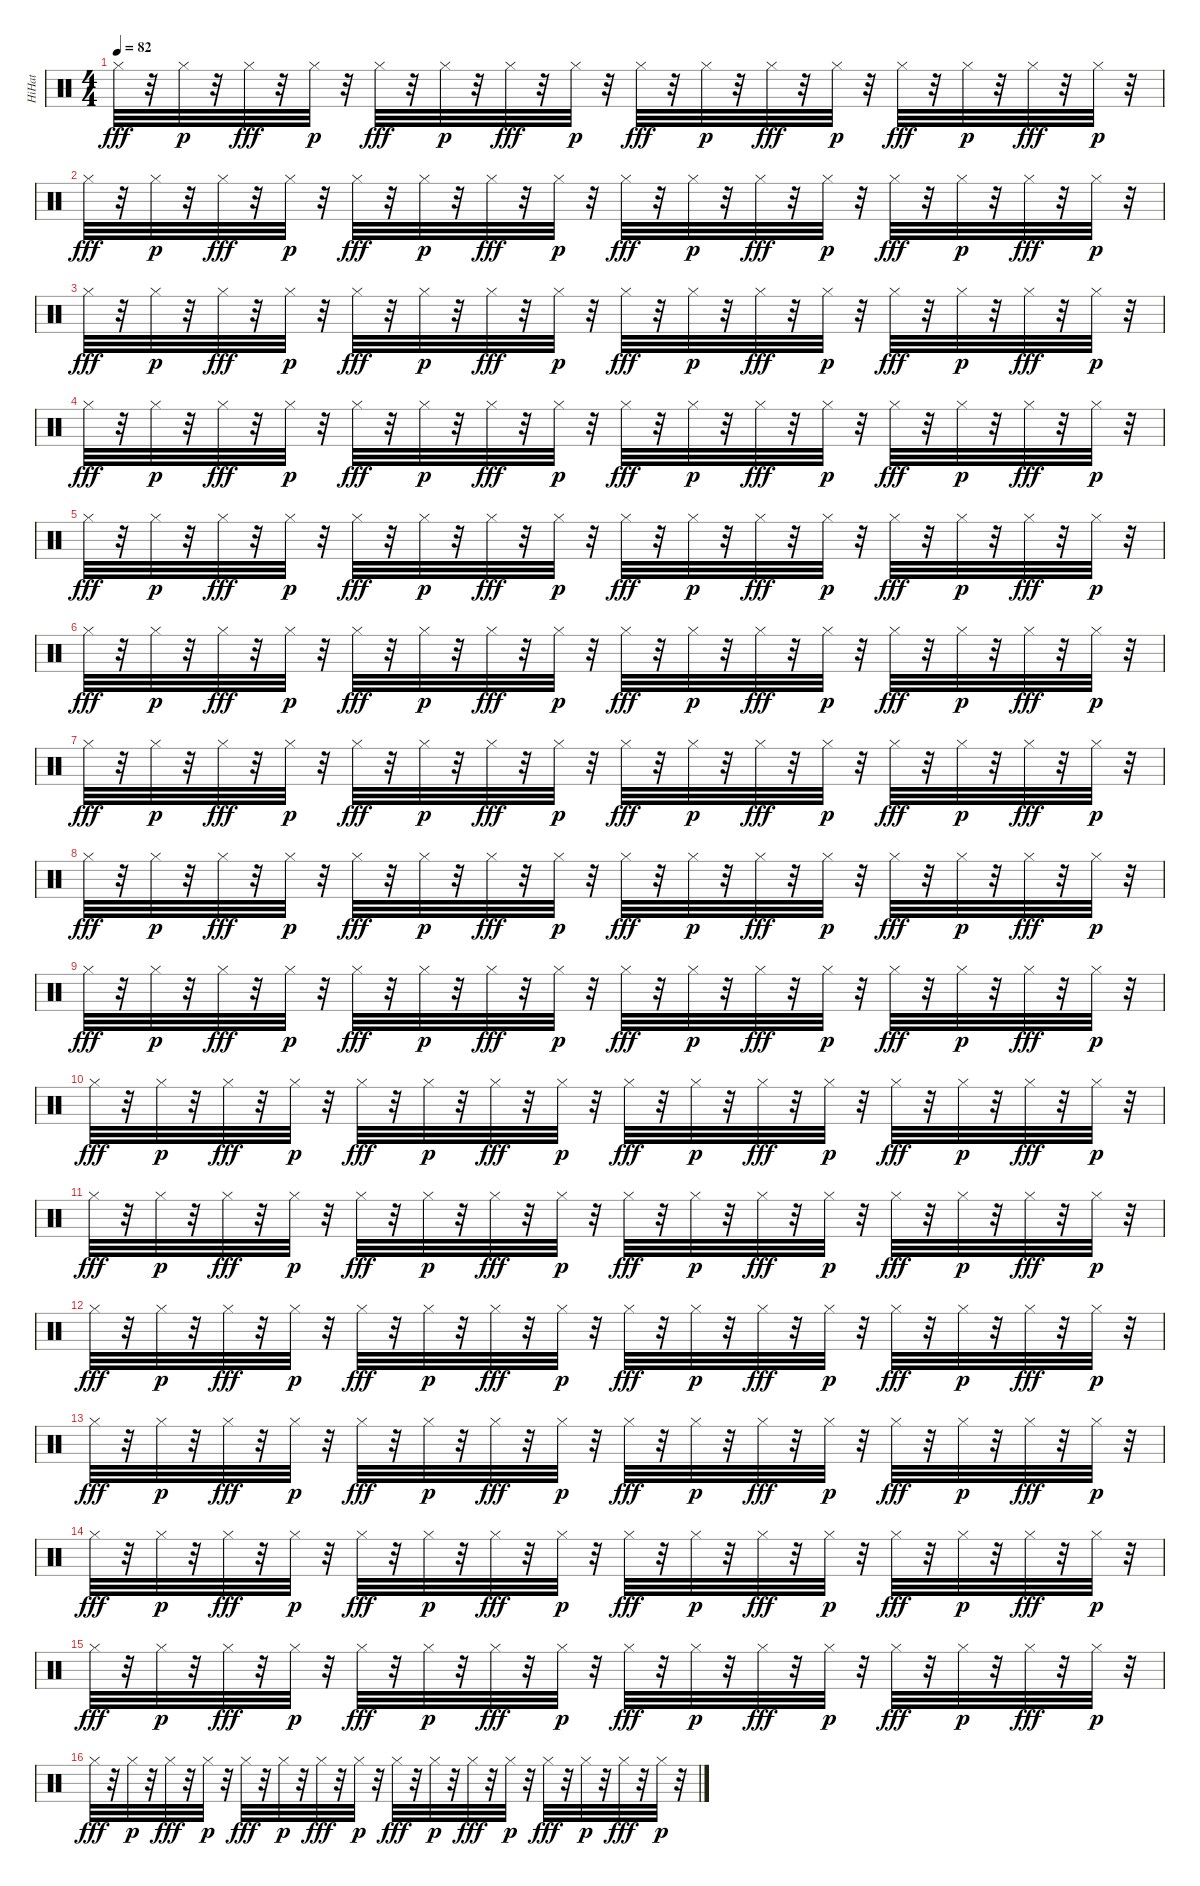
\track ("HiHat" "HiHat") {instrument percussion}
\staff {score}
\articulation defaults
\ts (4 4)
\tempo 82
\clef neutral
\ks c "Hi-Hat (closed)".32{dy fff}
r.32 "Hi-Hat (closed)".32{dy p} r.32 "Hi-Hat (closed)".32{dy fff} r.32 "Hi-Hat (closed)".32{dy p} r.32 "Hi-Hat (closed)".32{dy fff} r.32 "Hi-Hat (closed)".32{dy p} r.32 "Hi-Hat (closed)".32{dy fff} r.32 "Hi-Hat (closed)".32{dy p} r.32 "Hi-Hat (closed)".32{dy fff} r.32 "Hi-Hat (closed)".32{dy p} r.32 "Hi-Hat (closed)".32{dy fff} r.32 "Hi-Hat (closed)".32{dy p} r.32 "Hi-Hat (closed)".32{dy fff} r.32 "Hi-Hat (closed)".32{dy p} r.32 "Hi-Hat (closed)".32{dy fff} r.32 "Hi-Hat (closed)".32{dy p} r.32 |
"Hi-Hat (closed)".32{dy fff} r.32 "Hi-Hat (closed)".32{dy p} r.32 "Hi-Hat (closed)".32{dy fff} r.32 "Hi-Hat (closed)".32{dy p} r.32 "Hi-Hat (closed)".32{dy fff} r.32 "Hi-Hat (closed)".32{dy p} r.32 "Hi-Hat (closed)".32{dy fff} r.32 "Hi-Hat (closed)".32{dy p} r.32 "Hi-Hat (closed)".32{dy fff} r.32 "Hi-Hat (closed)".32{dy p} r.32 "Hi-Hat (closed)".32{dy fff} r.32 "Hi-Hat (closed)".32{dy p} r.32 "Hi-Hat (closed)".32{dy fff} r.32 "Hi-Hat (closed)".32{dy p} r.32 "Hi-Hat (closed)".32{dy fff} r.32 "Hi-Hat (closed)".32{dy p} r.32 |
"Hi-Hat (closed)".32{dy fff} r.32 "Hi-Hat (closed)".32{dy p} r.32 "Hi-Hat (closed)".32{dy fff} r.32 "Hi-Hat (closed)".32{dy p} r.32 "Hi-Hat (closed)".32{dy fff} r.32 "Hi-Hat (closed)".32{dy p} r.32 "Hi-Hat (closed)".32{dy fff} r.32 "Hi-Hat (closed)".32{dy p} r.32 "Hi-Hat (closed)".32{dy fff} r.32 "Hi-Hat (closed)".32{dy p} r.32 "Hi-Hat (closed)".32{dy fff} r.32 "Hi-Hat (closed)".32{dy p} r.32 "Hi-Hat (closed)".32{dy fff} r.32 "Hi-Hat (closed)".32{dy p} r.32 "Hi-Hat (closed)".32{dy fff} r.32 "Hi-Hat (closed)".32{dy p} r.32 |
"Hi-Hat (closed)".32{dy fff} r.32 "Hi-Hat (closed)".32{dy p} r.32 "Hi-Hat (closed)".32{dy fff} r.32 "Hi-Hat (closed)".32{dy p} r.32 "Hi-Hat (closed)".32{dy fff} r.32 "Hi-Hat (closed)".32{dy p} r.32 "Hi-Hat (closed)".32{dy fff} r.32 "Hi-Hat (closed)".32{dy p} r.32 "Hi-Hat (closed)".32{dy fff} r.32 "Hi-Hat (closed)".32{dy p} r.32 "Hi-Hat (closed)".32{dy fff} r.32 "Hi-Hat (closed)".32{dy p} r.32 "Hi-Hat (closed)".32{dy fff} r.32 "Hi-Hat (closed)".32{dy p} r.32 "Hi-Hat (closed)".32{dy fff} r.32 "Hi-Hat (closed)".32{dy p} r.32 |
"Hi-Hat (closed)".32{dy fff} r.32 "Hi-Hat (closed)".32{dy p} r.32 "Hi-Hat (closed)".32{dy fff} r.32 "Hi-Hat (closed)".32{dy p} r.32 "Hi-Hat (closed)".32{dy fff} r.32 "Hi-Hat (closed)".32{dy p} r.32 "Hi-Hat (closed)".32{dy fff} r.32 "Hi-Hat (closed)".32{dy p} r.32 "Hi-Hat (closed)".32{dy fff} r.32 "Hi-Hat (closed)".32{dy p} r.32 "Hi-Hat (closed)".32{dy fff} r.32 "Hi-Hat (closed)".32{dy p} r.32 "Hi-Hat (closed)".32{dy fff} r.32 "Hi-Hat (closed)".32{dy p} r.32 "Hi-Hat (closed)".32{dy fff} r.32 "Hi-Hat (closed)".32{dy p} r.32 |
"Hi-Hat (closed)".32{dy fff} r.32 "Hi-Hat (closed)".32{dy p} r.32 "Hi-Hat (closed)".32{dy fff} r.32 "Hi-Hat (closed)".32{dy p} r.32 "Hi-Hat (closed)".32{dy fff} r.32 "Hi-Hat (closed)".32{dy p} r.32 "Hi-Hat (closed)".32{dy fff} r.32 "Hi-Hat (closed)".32{dy p} r.32 "Hi-Hat (closed)".32{dy fff} r.32 "Hi-Hat (closed)".32{dy p} r.32 "Hi-Hat (closed)".32{dy fff} r.32 "Hi-Hat (closed)".32{dy p} r.32 "Hi-Hat (closed)".32{dy fff} r.32 "Hi-Hat (closed)".32{dy p} r.32 "Hi-Hat (closed)".32{dy fff} r.32 "Hi-Hat (closed)".32{dy p} r.32 |
"Hi-Hat (closed)".32{dy fff} r.32 "Hi-Hat (closed)".32{dy p} r.32 "Hi-Hat (closed)".32{dy fff} r.32 "Hi-Hat (closed)".32{dy p} r.32 "Hi-Hat (closed)".32{dy fff} r.32 "Hi-Hat (closed)".32{dy p} r.32 "Hi-Hat (closed)".32{dy fff} r.32 "Hi-Hat (closed)".32{dy p} r.32 "Hi-Hat (closed)".32{dy fff} r.32 "Hi-Hat (closed)".32{dy p} r.32 "Hi-Hat (closed)".32{dy fff} r.32 "Hi-Hat (closed)".32{dy p} r.32 "Hi-Hat (closed)".32{dy fff} r.32 "Hi-Hat (closed)".32{dy p} r.32 "Hi-Hat (closed)".32{dy fff} r.32 "Hi-Hat (closed)".32{dy p} r.32 |
"Hi-Hat (closed)".32{dy fff} r.32 "Hi-Hat (closed)".32{dy p} r.32 "Hi-Hat (closed)".32{dy fff} r.32 "Hi-Hat (closed)".32{dy p} r.32 "Hi-Hat (closed)".32{dy fff} r.32 "Hi-Hat (closed)".32{dy p} r.32 "Hi-Hat (closed)".32{dy fff} r.32 "Hi-Hat (closed)".32{dy p} r.32 "Hi-Hat (closed)".32{dy fff} r.32 "Hi-Hat (closed)".32{dy p} r.32 "Hi-Hat (closed)".32{dy fff} r.32 "Hi-Hat (closed)".32{dy p} r.32 "Hi-Hat (closed)".32{dy fff} r.32 "Hi-Hat (closed)".32{dy p} r.32 "Hi-Hat (closed)".32{dy fff} r.32 "Hi-Hat (closed)".32{dy p} r.32 |
"Hi-Hat (closed)".32{dy fff} r.32 "Hi-Hat (closed)".32{dy p} r.32 "Hi-Hat (closed)".32{dy fff} r.32 "Hi-Hat (closed)".32{dy p} r.32 "Hi-Hat (closed)".32{dy fff} r.32 "Hi-Hat (closed)".32{dy p} r.32 "Hi-Hat (closed)".32{dy fff} r.32 "Hi-Hat (closed)".32{dy p} r.32 "Hi-Hat (closed)".32{dy fff} r.32 "Hi-Hat (closed)".32{dy p} r.32 "Hi-Hat (closed)".32{dy fff} r.32 "Hi-Hat (closed)".32{dy p} r.32 "Hi-Hat (closed)".32{dy fff} r.32 "Hi-Hat (closed)".32{dy p} r.32 "Hi-Hat (closed)".32{dy fff} r.32 "Hi-Hat (closed)".32{dy p} r.32 |
"Hi-Hat (closed)".32{dy fff} r.32 "Hi-Hat (closed)".32{dy p} r.32 "Hi-Hat (closed)".32{dy fff} r.32 "Hi-Hat (closed)".32{dy p} r.32 "Hi-Hat (closed)".32{dy fff} r.32 "Hi-Hat (closed)".32{dy p} r.32 "Hi-Hat (closed)".32{dy fff} r.32 "Hi-Hat (closed)".32{dy p} r.32 "Hi-Hat (closed)".32{dy fff} r.32 "Hi-Hat (closed)".32{dy p} r.32 "Hi-Hat (closed)".32{dy fff} r.32 "Hi-Hat (closed)".32{dy p} r.32 "Hi-Hat (closed)".32{dy fff} r.32 "Hi-Hat (closed)".32{dy p} r.32 "Hi-Hat (closed)".32{dy fff} r.32 "Hi-Hat (closed)".32{dy p} r.32 |
"Hi-Hat (closed)".32{dy fff} r.32 "Hi-Hat (closed)".32{dy p} r.32 "Hi-Hat (closed)".32{dy fff} r.32 "Hi-Hat (closed)".32{dy p} r.32 "Hi-Hat (closed)".32{dy fff} r.32 "Hi-Hat (closed)".32{dy p} r.32 "Hi-Hat (closed)".32{dy fff} r.32 "Hi-Hat (closed)".32{dy p} r.32 "Hi-Hat (closed)".32{dy fff} r.32 "Hi-Hat (closed)".32{dy p} r.32 "Hi-Hat (closed)".32{dy fff} r.32 "Hi-Hat (closed)".32{dy p} r.32 "Hi-Hat (closed)".32{dy fff} r.32 "Hi-Hat (closed)".32{dy p} r.32 "Hi-Hat (closed)".32{dy fff} r.32 "Hi-Hat (closed)".32{dy p} r.32 |
"Hi-Hat (closed)".32{dy fff} r.32 "Hi-Hat (closed)".32{dy p} r.32 "Hi-Hat (closed)".32{dy fff} r.32 "Hi-Hat (closed)".32{dy p} r.32 "Hi-Hat (closed)".32{dy fff} r.32 "Hi-Hat (closed)".32{dy p} r.32 "Hi-Hat (closed)".32{dy fff} r.32 "Hi-Hat (closed)".32{dy p} r.32 "Hi-Hat (closed)".32{dy fff} r.32 "Hi-Hat (closed)".32{dy p} r.32 "Hi-Hat (closed)".32{dy fff} r.32 "Hi-Hat (closed)".32{dy p} r.32 "Hi-Hat (closed)".32{dy fff} r.32 "Hi-Hat (closed)".32{dy p} r.32 "Hi-Hat (closed)".32{dy fff} r.32 "Hi-Hat (closed)".32{dy p} r.32 |
"Hi-Hat (closed)".32{dy fff} r.32 "Hi-Hat (closed)".32{dy p} r.32 "Hi-Hat (closed)".32{dy fff} r.32 "Hi-Hat (closed)".32{dy p} r.32 "Hi-Hat (closed)".32{dy fff} r.32 "Hi-Hat (closed)".32{dy p} r.32 "Hi-Hat (closed)".32{dy fff} r.32 "Hi-Hat (closed)".32{dy p} r.32 "Hi-Hat (closed)".32{dy fff} r.32 "Hi-Hat (closed)".32{dy p} r.32 "Hi-Hat (closed)".32{dy fff} r.32 "Hi-Hat (closed)".32{dy p} r.32 "Hi-Hat (closed)".32{dy fff} r.32 "Hi-Hat (closed)".32{dy p} r.32 "Hi-Hat (closed)".32{dy fff} r.32 "Hi-Hat (closed)".32{dy p} r.32 |
"Hi-Hat (closed)".32{dy fff} r.32 "Hi-Hat (closed)".32{dy p} r.32 "Hi-Hat (closed)".32{dy fff} r.32 "Hi-Hat (closed)".32{dy p} r.32 "Hi-Hat (closed)".32{dy fff} r.32 "Hi-Hat (closed)".32{dy p} r.32 "Hi-Hat (closed)".32{dy fff} r.32 "Hi-Hat (closed)".32{dy p} r.32 "Hi-Hat (closed)".32{dy fff} r.32 "Hi-Hat (closed)".32{dy p} r.32 "Hi-Hat (closed)".32{dy fff} r.32 "Hi-Hat (closed)".32{dy p} r.32 "Hi-Hat (closed)".32{dy fff} r.32 "Hi-Hat (closed)".32{dy p} r.32 "Hi-Hat (closed)".32{dy fff} r.32 "Hi-Hat (closed)".32{dy p} r.32 |
"Hi-Hat (closed)".32{dy fff} r.32 "Hi-Hat (closed)".32{dy p} r.32 "Hi-Hat (closed)".32{dy fff} r.32 "Hi-Hat (closed)".32{dy p} r.32 "Hi-Hat (closed)".32{dy fff} r.32 "Hi-Hat (closed)".32{dy p} r.32 "Hi-Hat (closed)".32{dy fff} r.32 "Hi-Hat (closed)".32{dy p} r.32 "Hi-Hat (closed)".32{dy fff} r.32 "Hi-Hat (closed)".32{dy p} r.32 "Hi-Hat (closed)".32{dy fff} r.32 "Hi-Hat (closed)".32{dy p} r.32 "Hi-Hat (closed)".32{dy fff} r.32 "Hi-Hat (closed)".32{dy p} r.32 "Hi-Hat (closed)".32{dy fff} r.32 "Hi-Hat (closed)".32{dy p} r.32 |
"Hi-Hat (closed)".32{dy fff} r.32 "Hi-Hat (closed)".32{dy p} r.32 "Hi-Hat (closed)".32{dy fff} r.32 "Hi-Hat (closed)".32{dy p} r.32 "Hi-Hat (closed)".32{dy fff} r.32 "Hi-Hat (closed)".32{dy p} r.32 "Hi-Hat (closed)".32{dy fff} r.32 "Hi-Hat (closed)".32{dy p} r.32 "Hi-Hat (closed)".32{dy fff} r.32 "Hi-Hat (closed)".32{dy p} r.32 "Hi-Hat (closed)".32{dy fff} r.32 "Hi-Hat (closed)".32{dy p} r.32 "Hi-Hat (closed)".32{dy fff} r.32 "Hi-Hat (closed)".32{dy p} r.32 "Hi-Hat (closed)".32{dy fff} r.32 "Hi-Hat (closed)".32{dy p} r.32
